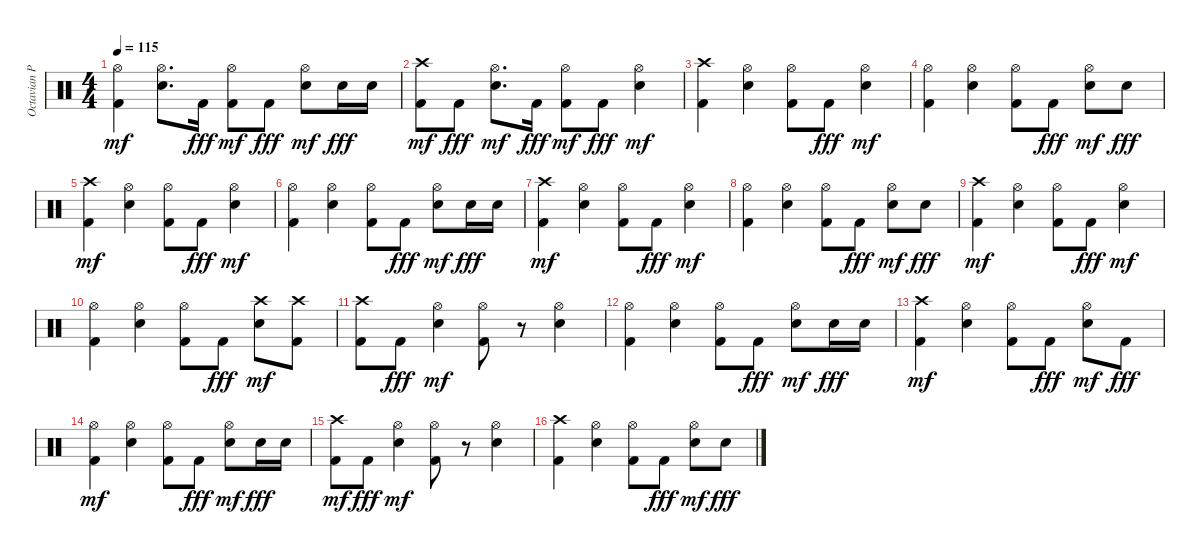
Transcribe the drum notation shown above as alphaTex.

\track ("Octavian Pilan" "Octavian P") {instrument percussion}
\staff {score}
\articulation defaults
\ts (4 4)
\tempo 115
\clef neutral
\ks c
("Kick (hit) 2" "Hi-Hat (open)").4{dy mf} ("Electric Snare (hit)" "Hi-Hat (open)").8{d} "Kick (hit) 2".16{dy fff} ("Kick (hit) 2" "Hi-Hat (open)").8{dy mf} "Kick (hit) 2".8{dy fff} ("Electric Snare (hit)" "Hi-Hat (open)").8{dy mf} "Electric Snare (hit)".16{dy fff} "Electric Snare (hit)".16 |
("Kick (hit) 2" "Crash high (hit)").8{dy mf} "Kick (hit) 2".8{dy fff} ("Electric Snare (hit)" "Hi-Hat (open)").8{d dy mf} "Kick (hit) 2".16{dy fff} ("Kick (hit) 2" "Hi-Hat (open)").8{dy mf} "Kick (hit) 2".8{dy fff} ("Electric Snare (hit)" "Hi-Hat (open)").4{dy mf} |
("Kick (hit) 2" "Crash high (hit)").4 ("Electric Snare (hit)" "Hi-Hat (open)").4 ("Kick (hit) 2" "Hi-Hat (open)").8 "Kick (hit) 2".8{dy fff} ("Electric Snare (hit)" "Hi-Hat (open)").4{dy mf} |
("Kick (hit) 2" "Hi-Hat (open)").4 ("Electric Snare (hit)" "Hi-Hat (open)").4 ("Kick (hit) 2" "Hi-Hat (open)").8 "Kick (hit) 2".8{dy fff} ("Electric Snare (hit)" "Hi-Hat (open)").8{dy mf} "Electric Snare (hit)".8{dy fff} |
("Kick (hit) 2" "Crash high (hit)").4{dy mf} ("Electric Snare (hit)" "Hi-Hat (open)").4 ("Kick (hit) 2" "Hi-Hat (open)").8 "Kick (hit) 2".8{dy fff} ("Electric Snare (hit)" "Hi-Hat (open)").4{dy mf} |
("Kick (hit) 2" "Hi-Hat (open)").4 ("Electric Snare (hit)" "Hi-Hat (open)").4 ("Kick (hit) 2" "Hi-Hat (open)").8 "Kick (hit) 2".8{dy fff} ("Electric Snare (hit)" "Hi-Hat (open)").8{dy mf} "Electric Snare (hit)".16{dy fff} "Electric Snare (hit)".16 |
("Kick (hit) 2" "Crash high (hit)").4{dy mf} ("Electric Snare (hit)" "Hi-Hat (open)").4 ("Kick (hit) 2" "Hi-Hat (open)").8 "Kick (hit) 2".8{dy fff} ("Electric Snare (hit)" "Hi-Hat (open)").4{dy mf} |
("Kick (hit) 2" "Hi-Hat (open)").4 ("Electric Snare (hit)" "Hi-Hat (open)").4 ("Kick (hit) 2" "Hi-Hat (open)").8 "Kick (hit) 2".8{dy fff} ("Electric Snare (hit)" "Hi-Hat (open)").8{dy mf} "Electric Snare (hit)".8{dy fff} |
("Kick (hit) 2" "Crash high (hit)").4{dy mf} ("Electric Snare (hit)" "Hi-Hat (open)").4 ("Kick (hit) 2" "Hi-Hat (open)").8 "Kick (hit) 2".8{dy fff} ("Electric Snare (hit)" "Hi-Hat (open)").4{dy mf} |
("Kick (hit) 2" "Hi-Hat (open)").4 ("Electric Snare (hit)" "Hi-Hat (open)").4 ("Kick (hit) 2" "Hi-Hat (open)").8 "Kick (hit) 2".8{dy fff} ("Electric Snare (hit)" "Crash high (hit)").8{dy mf} ("Kick (hit) 2" "Crash high (hit)").8 |
("Kick (hit) 2" "Crash high (hit)").8 "Kick (hit) 2".8{dy fff} ("Electric Snare (hit)" "Hi-Hat (open)").4{dy mf} ("Kick (hit) 2" "Hi-Hat (open)").8 r.8 ("Electric Snare (hit)" "Hi-Hat (open)").4 |
("Kick (hit) 2" "Hi-Hat (open)").4 ("Electric Snare (hit)" "Hi-Hat (open)").4 ("Kick (hit) 2" "Hi-Hat (open)").8 "Kick (hit) 2".8{dy fff} ("Electric Snare (hit)" "Hi-Hat (open)").8{dy mf} "Electric Snare (hit)".16{dy fff} "Electric Snare (hit)".16 |
("Kick (hit) 2" "Crash high (hit)").4{dy mf} ("Electric Snare (hit)" "Hi-Hat (open)").4 ("Kick (hit) 2" "Hi-Hat (open)").8 "Kick (hit) 2".8{dy fff} ("Electric Snare (hit)" "Hi-Hat (open)").8{dy mf} "Kick (hit) 2".8{dy fff} |
("Kick (hit) 2" "Hi-Hat (open)").4{dy mf} ("Electric Snare (hit)" "Hi-Hat (open)").4 ("Kick (hit) 2" "Hi-Hat (open)").8 "Kick (hit) 2".8{dy fff} ("Electric Snare (hit)" "Hi-Hat (open)").8{dy mf} "Electric Snare (hit)".16{dy fff} "Electric Snare (hit)".16 |
("Kick (hit) 2" "Crash high (hit)").8{dy mf} "Kick (hit) 2".8{dy fff} ("Electric Snare (hit)" "Hi-Hat (open)").4{dy mf} ("Kick (hit) 2" "Hi-Hat (open)").8 r.8 ("Electric Snare (hit)" "Hi-Hat (open)").4 |
("Kick (hit) 2" "Crash high (hit)").4 ("Electric Snare (hit)" "Hi-Hat (open)").4 ("Kick (hit) 2" "Hi-Hat (open)").8 "Kick (hit) 2".8{dy fff} ("Electric Snare (hit)" "Hi-Hat (open)").8{dy mf} "Electric Snare (hit)".8{dy fff}
